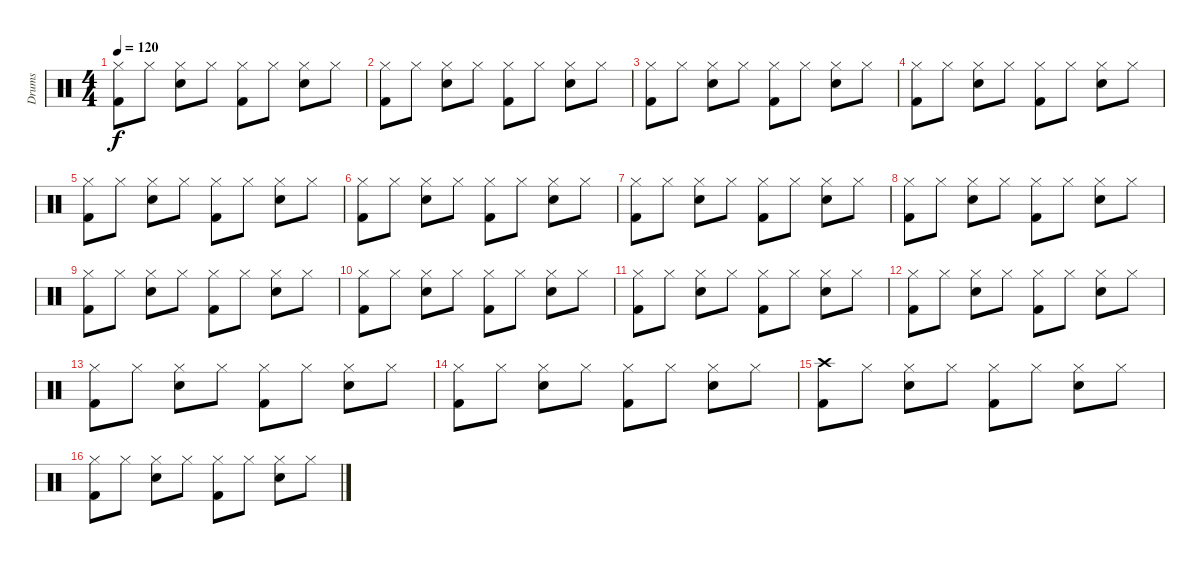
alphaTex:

\track ("Drums" "Drums") {instrument percussion}
\staff {score}
\articulation defaults
\ts (4 4)
\tempo 120
\clef neutral
\ks c
("Hi-Hat (closed)" "Kick (hit) 2").8{dy f} "Hi-Hat (closed)".8 ("Hi-Hat (closed)" "Snare (hit) 2").8 "Hi-Hat (closed)".8 ("Hi-Hat (closed)" "Kick (hit) 2").8 "Hi-Hat (closed)".8 ("Hi-Hat (closed)" "Snare (hit) 2").8 "Hi-Hat (closed)".8 |
("Hi-Hat (closed)" "Kick (hit) 2").8 "Hi-Hat (closed)".8 ("Hi-Hat (closed)" "Snare (hit) 2").8 "Hi-Hat (closed)".8 ("Hi-Hat (closed)" "Kick (hit) 2").8 "Hi-Hat (closed)".8 ("Hi-Hat (closed)" "Snare (hit) 2").8 "Hi-Hat (closed)".8 |
("Hi-Hat (closed)" "Kick (hit) 2").8 "Hi-Hat (closed)".8 ("Hi-Hat (closed)" "Snare (hit) 2").8 "Hi-Hat (closed)".8 ("Hi-Hat (closed)" "Kick (hit) 2").8 "Hi-Hat (closed)".8 ("Hi-Hat (closed)" "Snare (hit) 2").8 "Hi-Hat (closed)".8 |
("Hi-Hat (closed)" "Kick (hit) 2").8 "Hi-Hat (closed)".8 ("Hi-Hat (closed)" "Snare (hit) 2").8 "Hi-Hat (closed)".8 ("Hi-Hat (closed)" "Kick (hit) 2").8 "Hi-Hat (closed)".8 ("Hi-Hat (closed)" "Snare (hit) 2").8 "Hi-Hat (closed)".8 |
("Hi-Hat (closed)" "Kick (hit) 2").8 "Hi-Hat (closed)".8 ("Hi-Hat (closed)" "Snare (hit) 2").8 "Hi-Hat (closed)".8 ("Hi-Hat (closed)" "Kick (hit) 2").8 "Hi-Hat (closed)".8 ("Hi-Hat (closed)" "Snare (hit) 2").8 "Hi-Hat (closed)".8 |
("Hi-Hat (closed)" "Kick (hit) 2").8 "Hi-Hat (closed)".8 ("Hi-Hat (closed)" "Snare (hit) 2").8 "Hi-Hat (closed)".8 ("Hi-Hat (closed)" "Kick (hit) 2").8 "Hi-Hat (closed)".8 ("Hi-Hat (closed)" "Snare (hit) 2").8 "Hi-Hat (closed)".8 |
("Hi-Hat (closed)" "Kick (hit) 2").8 "Hi-Hat (closed)".8 ("Hi-Hat (closed)" "Snare (hit) 2").8 "Hi-Hat (closed)".8 ("Hi-Hat (closed)" "Kick (hit) 2").8 "Hi-Hat (closed)".8 ("Hi-Hat (closed)" "Snare (hit) 2").8 "Hi-Hat (closed)".8 |
("Hi-Hat (closed)" "Kick (hit) 2").8 "Hi-Hat (closed)".8 ("Hi-Hat (closed)" "Snare (hit) 2").8 "Hi-Hat (closed)".8 ("Hi-Hat (closed)" "Kick (hit) 2").8 "Hi-Hat (closed)".8 ("Hi-Hat (closed)" "Snare (hit) 2").8 "Hi-Hat (closed)".8 |
("Hi-Hat (closed)" "Kick (hit) 2").8 "Hi-Hat (closed)".8 ("Hi-Hat (closed)" "Snare (hit) 2").8 "Hi-Hat (closed)".8 ("Hi-Hat (closed)" "Kick (hit) 2").8 "Hi-Hat (closed)".8 ("Hi-Hat (closed)" "Snare (hit) 2").8 "Hi-Hat (closed)".8 |
("Hi-Hat (closed)" "Kick (hit) 2").8 "Hi-Hat (closed)".8 ("Hi-Hat (closed)" "Snare (hit) 2").8 "Hi-Hat (closed)".8 ("Hi-Hat (closed)" "Kick (hit) 2").8 "Hi-Hat (closed)".8 ("Hi-Hat (closed)" "Snare (hit) 2").8 "Hi-Hat (closed)".8 |
("Hi-Hat (closed)" "Kick (hit) 2").8 "Hi-Hat (closed)".8 ("Hi-Hat (closed)" "Snare (hit) 2").8 "Hi-Hat (closed)".8 ("Hi-Hat (closed)" "Kick (hit) 2").8 "Hi-Hat (closed)".8 ("Hi-Hat (closed)" "Snare (hit) 2").8 "Hi-Hat (closed)".8 |
("Hi-Hat (closed)" "Kick (hit) 2").8 "Hi-Hat (closed)".8 ("Hi-Hat (closed)" "Snare (hit) 2").8 "Hi-Hat (closed)".8 ("Hi-Hat (closed)" "Kick (hit) 2").8 "Hi-Hat (closed)".8 ("Hi-Hat (closed)" "Snare (hit) 2").8 "Hi-Hat (closed)".8 |
("Hi-Hat (closed)" "Kick (hit) 2").8 "Hi-Hat (closed)".8 ("Hi-Hat (closed)" "Snare (hit) 2").8 "Hi-Hat (closed)".8 ("Hi-Hat (closed)" "Kick (hit) 2").8 "Hi-Hat (closed)".8 ("Hi-Hat (closed)" "Snare (hit) 2").8 "Hi-Hat (closed)".8 |
("Hi-Hat (closed)" "Kick (hit) 2").8 "Hi-Hat (closed)".8 ("Hi-Hat (closed)" "Snare (hit) 2").8 "Hi-Hat (closed)".8 ("Hi-Hat (closed)" "Kick (hit) 2").8 "Hi-Hat (closed)".8 ("Hi-Hat (closed)" "Snare (hit) 2").8 "Hi-Hat (closed)".8 |
("Crash high (hit)" "Kick (hit) 2").8 "Hi-Hat (closed)".8 ("Hi-Hat (closed)" "Snare (hit) 2").8 "Hi-Hat (closed)".8 ("Hi-Hat (closed)" "Kick (hit) 2").8 "Hi-Hat (closed)".8 ("Hi-Hat (closed)" "Snare (hit) 2").8 "Hi-Hat (closed)".8 |
("Hi-Hat (closed)" "Kick (hit) 2").8 "Hi-Hat (closed)".8 ("Hi-Hat (closed)" "Snare (hit) 2").8 "Hi-Hat (closed)".8 ("Hi-Hat (closed)" "Kick (hit) 2").8 "Hi-Hat (closed)".8 ("Hi-Hat (closed)" "Snare (hit) 2").8 "Hi-Hat (closed)".8
